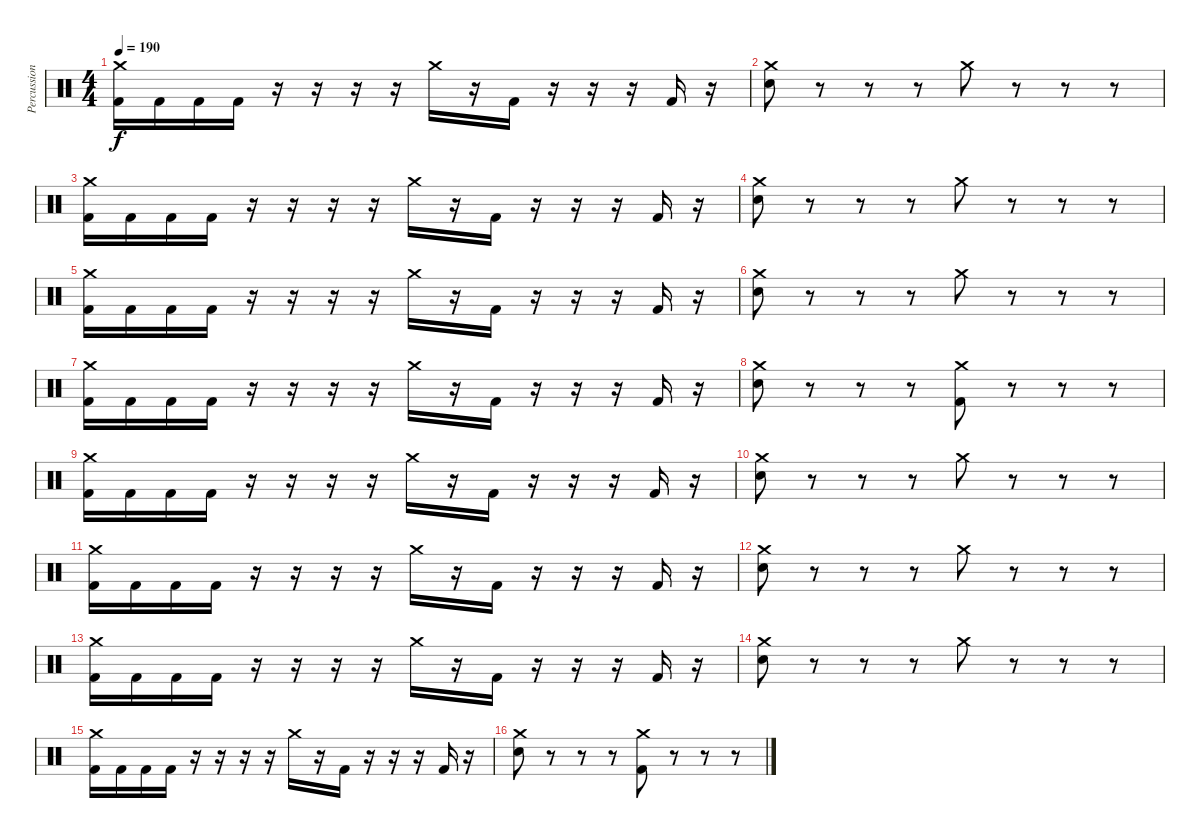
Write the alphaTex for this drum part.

\track ("Percussion" "Percussion") {instrument percussion}
\staff {score}
\articulation defaults
\ts (4 4)
\tempo 190
\clef neutral
\ks c
("Crash medium (hit)" "Kick (hit) 2").16{dy f} "Kick (hit) 2".16 "Kick (hit) 2".16 "Kick (hit) 2".16 r.16 r.16 r.16 r.16 "Crash medium (hit)".16 r.16 "Kick (hit) 2".16 r.16 r.16 r.16 "Kick (hit) 2".16 r.16 |
("Crash medium (hit)" "Snare (hit) 2").8 r.8 r.8 r.8 "Crash medium (hit)".8 r.8 r.8 r.8 |
("Crash medium (hit)" "Kick (hit) 2").16 "Kick (hit) 2".16 "Kick (hit) 2".16 "Kick (hit) 2".16 r.16 r.16 r.16 r.16 "Crash medium (hit)".16 r.16 "Kick (hit) 2".16 r.16 r.16 r.16 "Kick (hit) 2".16 r.16 |
("Crash medium (hit)" "Snare (hit) 2").8 r.8 r.8 r.8 "Crash medium (hit)".8 r.8 r.8 r.8 |
("Crash medium (hit)" "Kick (hit) 2").16 "Kick (hit) 2".16 "Kick (hit) 2".16 "Kick (hit) 2".16 r.16 r.16 r.16 r.16 "Crash medium (hit)".16 r.16 "Kick (hit) 2".16 r.16 r.16 r.16 "Kick (hit) 2".16 r.16 |
("Crash medium (hit)" "Snare (hit) 2").8 r.8 r.8 r.8 "Crash medium (hit)".8 r.8 r.8 r.8 |
("Crash medium (hit)" "Kick (hit) 2").16 "Kick (hit) 2".16 "Kick (hit) 2".16 "Kick (hit) 2".16 r.16 r.16 r.16 r.16 "Crash medium (hit)".16 r.16 "Kick (hit) 2".16 r.16 r.16 r.16 "Kick (hit) 2".16 r.16 |
("Crash medium (hit)" "Snare (hit) 2").8 r.8 r.8 r.8 ("Crash medium (hit)" "Kick (hit) 2").8 r.8 r.8 r.8 |
("Crash medium (hit)" "Kick (hit) 2").16 "Kick (hit) 2".16 "Kick (hit) 2".16 "Kick (hit) 2".16 r.16 r.16 r.16 r.16 "Crash medium (hit)".16 r.16 "Kick (hit) 2".16 r.16 r.16 r.16 "Kick (hit) 2".16 r.16 |
("Crash medium (hit)" "Snare (hit) 2").8 r.8 r.8 r.8 "Crash medium (hit)".8 r.8 r.8 r.8 |
("Crash medium (hit)" "Kick (hit) 2").16 "Kick (hit) 2".16 "Kick (hit) 2".16 "Kick (hit) 2".16 r.16 r.16 r.16 r.16 "Crash medium (hit)".16 r.16 "Kick (hit) 2".16 r.16 r.16 r.16 "Kick (hit) 2".16 r.16 |
("Crash medium (hit)" "Snare (hit) 2").8 r.8 r.8 r.8 "Crash medium (hit)".8 r.8 r.8 r.8 |
("Crash medium (hit)" "Kick (hit) 2").16 "Kick (hit) 2".16 "Kick (hit) 2".16 "Kick (hit) 2".16 r.16 r.16 r.16 r.16 "Crash medium (hit)".16 r.16 "Kick (hit) 2".16 r.16 r.16 r.16 "Kick (hit) 2".16 r.16 |
("Crash medium (hit)" "Snare (hit) 2").8 r.8 r.8 r.8 "Crash medium (hit)".8 r.8 r.8 r.8 |
("Crash medium (hit)" "Kick (hit) 2").16 "Kick (hit) 2".16 "Kick (hit) 2".16 "Kick (hit) 2".16 r.16 r.16 r.16 r.16 "Crash medium (hit)".16 r.16 "Kick (hit) 2".16 r.16 r.16 r.16 "Kick (hit) 2".16 r.16 |
("Crash medium (hit)" "Snare (hit) 2").8 r.8 r.8 r.8 ("Crash medium (hit)" "Kick (hit) 2").8 r.8 r.8 r.8
